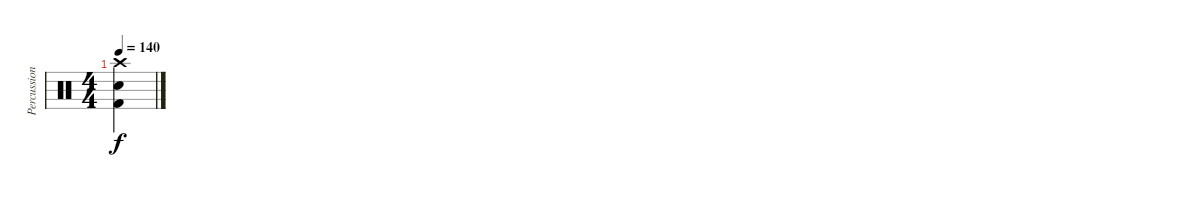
\track ("Percussions" "Percussion") {instrument percussion}
\staff {score}
\articulation defaults
\ts (4 4)
\tempo 140
\clef neutral
\ks c
("Crash high (hit)" "Snare (hit) 2" "Kick (hit) 2").4{dy f}
